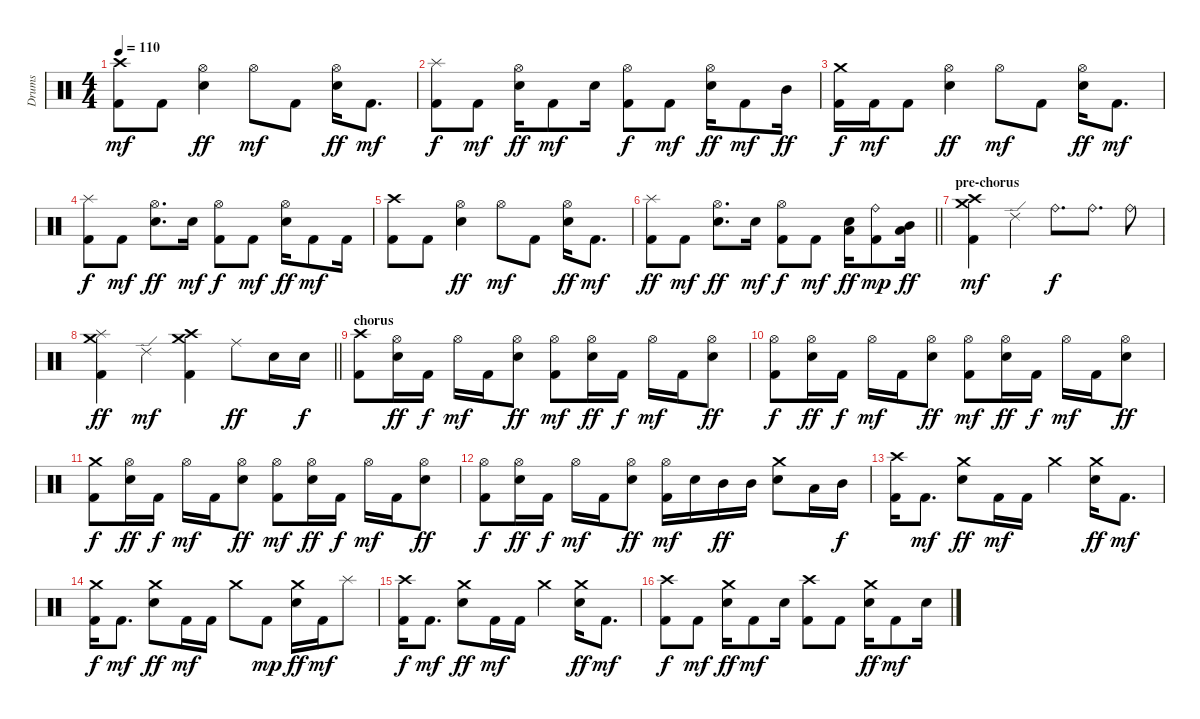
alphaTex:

\track ("Drums" "Drums") {instrument percussion}
\staff {score}
\articulation defaults
\ts (4 4)
\tempo 110
\clef neutral
\ks c
("Crash high (hit)" "Kick (hit) 2").8{dy mf} "Kick (hit) 2".8 ("Hi-Hat (open)" "Snare (hit) 2").4{dy ff} "Hi-Hat (open)".8{dy mf} "Kick (hit) 2".8 ("Hi-Hat (open)" "Snare (hit) 2").16{dy ff} "Kick (hit) 2".8{d dy mf} |
("Splash (hit)" "Kick (hit) 2").8{dy f} "Kick (hit) 2".8{dy mf} ("Hi-Hat (open)" "Snare (hit) 2").16{dy ff} "Kick (hit) 2".8{dy mf} "Snare (hit) 2".16 ("Hi-Hat (open)" "Kick (hit) 2").8{dy f} "Kick (hit) 2".8{dy mf} ("Hi-Hat (open)" "Snare (hit) 2").16{dy ff} "Kick (hit) 2".8{dy mf} "Mid Tom (hit)".16{dy ff} |
("Crash medium (hit)" "Kick (hit) 2").16{dy f} "Kick (hit) 2".16{dy mf} "Kick (hit) 2".8 ("Hi-Hat (open)" "Snare (hit) 2").4{dy ff} "Hi-Hat (open)".8{dy mf} "Kick (hit) 2".8 ("Hi-Hat (open)" "Snare (hit) 2").16{dy ff} "Kick (hit) 2".8{d dy mf} |
("Splash (hit)" "Kick (hit) 2").8{dy f} "Kick (hit) 2".8{dy mf} ("Hi-Hat (open)" "Snare (hit) 2").8{d dy ff} "Snare (hit) 2".16{dy mf} ("Hi-Hat (open)" "Kick (hit) 2").8{dy f} "Kick (hit) 2".8{dy mf} ("Hi-Hat (open)" "Snare (hit) 2").16{dy ff} "Kick (hit) 2".8{dy mf} "Kick (hit) 2".16 |
("Crash high (hit)" "Kick (hit) 2").8 "Kick (hit) 2".8 ("Hi-Hat (open)" "Snare (hit) 2").4{dy ff} "Hi-Hat (open)".8{dy mf} "Kick (hit) 2".8 ("Hi-Hat (open)" "Snare (hit) 2").16{dy ff} "Kick (hit) 2".8{d dy mf} |
\barLineRight lightlight
("Splash (hit)" "Kick (hit) 2").8{dy ff} "Kick (hit) 2".8{dy mf} ("Hi-Hat (open)" "Snare (hit) 2").8{d dy ff} "Snare (hit) 2".16{dy mf} ("Hi-Hat (open)" "Kick (hit) 2").8{dy f} "Kick (hit) 2".8{dy mf} ("Low Tom (hit)" "Snare (hit) 2").16{dy ff} ("Ride (bell)" "Kick (hit) 2").8{dy mp} ("Low Tom (hit)" "Mid Tom (hit)").16{dy ff} |
\section ("" "pre-chorus")
("Crash medium (hit)" "Crash high (hit)" "Kick (hit) 2").4{dy mf} "Ride (edge) 2".4 "Ride (bell)".8{d dy f} "Ride (bell)".8{d} "Ride (bell)".8 |
\barLineRight lightlight
("Crash medium (hit)" "Splash (hit)" "Kick (hit) 2").4{dy ff} "Ride (edge) 2".4{dy mf} ("Crash medium (hit)" "Crash high (hit)" "Kick (hit) 2").4 "Ride (middle)".8{dy ff} "Snare (hit) 2".16 "Snare (hit) 2".16{dy f} |
\section ("" "chorus")
("Crash high (hit)" "Kick (hit) 2").8 ("Hi-Hat (open)" "Snare (hit) 2").16{dy ff} "Kick (hit) 2".16{dy f} "Hi-Hat (open)".16{dy mf} "Kick (hit) 2".16 ("Hi-Hat (open)" "Snare (hit) 2").8{dy ff} ("Hi-Hat (open)" "Kick (hit) 2").8{dy mf} ("Hi-Hat (open)" "Snare (hit) 2").16{dy ff} "Kick (hit) 2".16{dy f} "Hi-Hat (open)".16{dy mf} "Kick (hit) 2".16 ("Hi-Hat (open)" "Snare (hit) 2").8{dy ff} |
("Hi-Hat (open)" "Kick (hit) 2").8{dy f} ("Hi-Hat (open)" "Snare (hit) 2").16{dy ff} "Kick (hit) 2".16{dy f} "Hi-Hat (open)".16{dy mf} "Kick (hit) 2".16 ("Hi-Hat (open)" "Snare (hit) 2").8{dy ff} ("Hi-Hat (open)" "Kick (hit) 2").8{dy mf} ("Hi-Hat (open)" "Snare (hit) 2").16{dy ff} "Kick (hit) 2".16{dy f} "Hi-Hat (open)".16{dy mf} "Kick (hit) 2".16 ("Hi-Hat (open)" "Snare (hit) 2").8{dy ff} |
("Crash medium (hit)" "Kick (hit) 2").8{dy f} ("Hi-Hat (open)" "Snare (hit) 2").16{dy ff} "Kick (hit) 2".16{dy f} "Hi-Hat (open)".16{dy mf} "Kick (hit) 2".16 ("Hi-Hat (open)" "Snare (hit) 2").8{dy ff} ("Hi-Hat (open)" "Kick (hit) 2").8{dy mf} ("Hi-Hat (open)" "Snare (hit) 2").16{dy ff} "Kick (hit) 2".16{dy f} "Hi-Hat (open)".16{dy mf} "Kick (hit) 2".16 ("Hi-Hat (open)" "Snare (hit) 2").8{dy ff} |
("Hi-Hat (open)" "Kick (hit) 2").8{dy f} ("Hi-Hat (open)" "Snare (hit) 2").16{dy ff} "Kick (hit) 2".16{dy f} "Hi-Hat (open)".16{dy mf} "Kick (hit) 2".16 ("Hi-Hat (open)" "Snare (hit) 2").8{dy ff} ("Hi-Hat (open)" "Kick (hit) 2").16{dy mf} "Snare (hit) 2".16 "Mid Tom (hit)".16{dy ff} "Mid Tom (hit)".16 ("Crash medium (hit)" "Snare (hit) 2").8 "Low Tom (hit)".16 "Mid Tom (hit)".16{dy f} |
("Crash high (hit)" "Kick (hit) 2").16 "Kick (hit) 2".8{d dy mf} ("Crash medium (hit)" "Snare (hit) 2").8{dy ff} "Kick (hit) 2".16{dy mf} "Kick (hit) 2".16 "Crash medium (hit)".4 ("Crash medium (hit)" "Snare (hit) 2").16{dy ff} "Kick (hit) 2".8{d dy mf} |
("Crash medium (hit)" "Kick (hit) 2").16{dy f} "Kick (hit) 2".8{d dy mf} ("Crash medium (hit)" "Snare (hit) 2").8{dy ff} "Kick (hit) 2".16{dy mf} "Kick (hit) 2".16 "Crash medium (hit)".8 "Kick (hit) 2".8{dy mp} ("Crash medium (hit)" "Snare (hit) 2").16{dy ff} "Kick (hit) 2".16{dy mf} "Splash (hit)".8 |
("Crash high (hit)" "Kick (hit) 2").16{dy f} "Kick (hit) 2".8{d dy mf} ("Crash medium (hit)" "Snare (hit) 2").8{dy ff} "Kick (hit) 2".16{dy mf} "Kick (hit) 2".16 "Crash medium (hit)".4 ("Crash medium (hit)" "Snare (hit) 2").16{dy ff} "Kick (hit) 2".8{d dy mf} |
("Crash high (hit)" "Kick (hit) 2").8{dy f} "Kick (hit) 2".8{dy mf} ("Crash medium (hit)" "Snare (hit) 2").16{dy ff} "Kick (hit) 2".8{dy mf} "Snare (hit) 2".16 ("Crash high (hit)" "Kick (hit) 2").8 "Kick (hit) 2".8 ("Crash medium (hit)" "Snare (hit) 2").16{dy ff} "Kick (hit) 2".8{dy mf} "Snare (hit) 2".16
